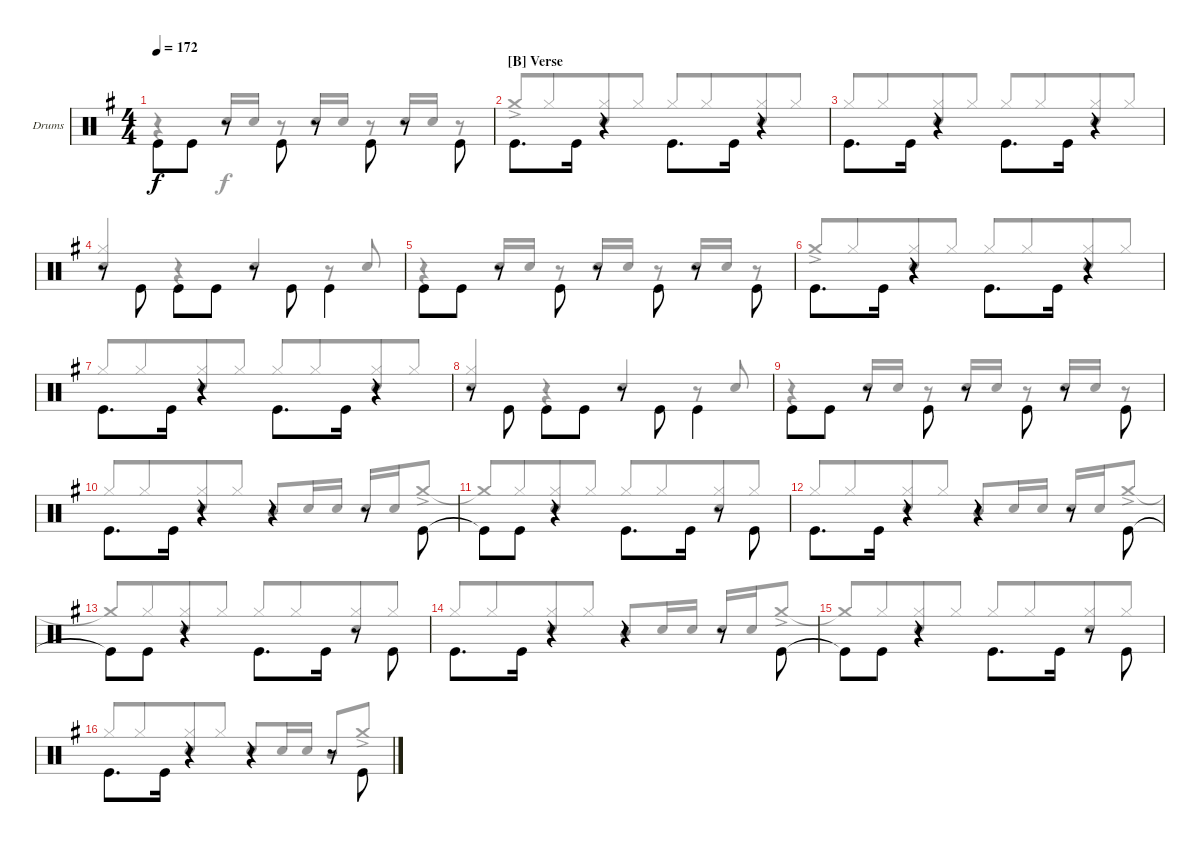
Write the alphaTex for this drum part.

\bracketExtendMode groupsimilarinstruments
\firstSystemTrackNameOrientation horizontal
\otherSystemsTrackNameOrientation horizontal
\track ("Drums" "Drums") {instrument percussion}
\staff {score}
\articulation defaults
\voice
\ts (4 4)
\tempo 172
\clef neutral
\scale
1.04288
\ks g "Kick (hit)".8{dy f beam invert} "Kick (hit)".8
r.8{beam invert} "Kick (hit)".8{beam invert} r.8{beam invert} "Kick (hit)".8{beam invert} r.8{beam invert} "Kick (hit)".8{beam invert} |
\section ("B" "Verse")
\scale
0.957125 "Kick (hit)".8{d beam invert} "Kick (hit)".16 r.4{beam invert} "Kick (hit)".8{d beam invert} "Kick (hit)".16 r.4{beam invert} |
\scale
1.04288 "Kick (hit)".8{d beam invert} "Kick (hit)".16 r.4{beam invert} "Kick (hit)".8{d beam invert} "Kick (hit)".16 r.4{beam invert} |
\scale
0.957125 r.8 "Kick (hit)".8{beam invert} "Kick (hit)".8{beam invert} "Kick (hit)".8 r.8{beam invert} "Kick (hit)".8{beam invert} "Kick (hit)".4{beam invert} |
\scale
1.04288 "Kick (hit)".8{beam invert} "Kick (hit)".8 r.8{beam invert} "Kick (hit)".8{beam invert} r.8{beam invert} "Kick (hit)".8{beam invert} r.8{beam invert} "Kick (hit)".8{beam invert} |
\scale
0.957125 "Kick (hit)".8{d beam invert} "Kick (hit)".16 r.4{beam invert} "Kick (hit)".8{d beam invert} "Kick (hit)".16 r.4{beam invert} |
\scale
1.04288 "Kick (hit)".8{d beam invert} "Kick (hit)".16 r.4{beam invert} "Kick (hit)".8{d beam invert} "Kick (hit)".16 r.4{beam invert} |
\scale
0.957125 r.8 "Kick (hit)".8{beam invert} "Kick (hit)".8{beam invert} "Kick (hit)".8 r.8{beam invert} "Kick (hit)".8{beam invert} "Kick (hit)".4{beam invert} |
\scale
1.04288 "Kick (hit)".8{beam invert} "Kick (hit)".8 r.8{beam invert} "Kick (hit)".8{beam invert} r.8{beam invert} "Kick (hit)".8{beam invert} r.8{beam invert} "Kick (hit)".8{beam invert} |
\scale
0.957125 "Kick (hit)".8{d beam invert} "Kick (hit)".16 r.4{beam invert} r.4{beam invert} r.8{beam invert} "Kick (hit)".8{beam invert} |
\scale
1.04288 "Kick (hit)"{t}.8{beam invert} "Kick (hit)".8 r.4 "Kick (hit)".8{d beam invert} "Kick (hit)".16 r.8{beam invert} "Kick (hit)".8{beam invert} |
\scale
0.957125 "Kick (hit)".8{d beam invert} "Kick (hit)".16 r.4{beam invert} r.4{beam invert} r.8{beam invert} "Kick (hit)".8{beam invert} |
\scale
1.04288 "Kick (hit)"{t}.8{beam invert} "Kick (hit)".8 r.4 "Kick (hit)".8{d beam invert} "Kick (hit)".16 r.8{beam invert} "Kick (hit)".8{beam invert} |
\scale
0.957125 "Kick (hit)".8{d beam invert} "Kick (hit)".16 r.4{beam invert} r.4{beam invert} r.8{beam invert} "Kick (hit)".8{beam invert} |
\scale
1.04288 "Kick (hit)"{t}.8{beam invert} "Kick (hit)".8 r.4 "Kick (hit)".8{d beam invert} "Kick (hit)".16 r.8{beam invert} "Kick (hit)".8{beam invert} |
\scale
0.957125 "Kick (hit)".8{d beam invert} "Kick (hit)".16 r.4{beam invert} r.4{beam invert} r.8{beam invert} "Kick (hit)".8{beam invert}
\voice
\clef neutral
\ottava regular
\simile none
\scale
1.04288
\ks g
r.4{dy f} "Snare (hit) 2".16{beam invert} "Snare (hit) 2".16 r.8 "Snare (hit) 2".16{beam invert} "Snare (hit) 2".16 r.8 "Snare (hit) 2".16{beam invert} "Snare (hit) 2".16 r.8 |
\scale
0.957125 "Crash medium (hit)"{ac}.8{beam invert beam merge} "Hi-Hat (closed)".8{beam merge} ("Hi-Hat (closed)" "Snare (hit) 2").8{beam merge} "Hi-Hat (closed)".8{beam split} "Hi-Hat (closed)".8{beam invert beam merge} "Hi-Hat (closed)".8{beam merge} ("Hi-Hat (closed)" "Snare (hit) 2").8{beam merge} "Hi-Hat (closed)".8{beam merge} |
\scale
1.04288 "Hi-Hat (closed)".8{beam invert beam merge} "Hi-Hat (closed)".8{beam merge} ("Hi-Hat (closed)" "Snare (hit) 2").8{beam merge} "Hi-Hat (closed)".8{beam split} "Hi-Hat (closed)".8{beam invert beam merge} "Hi-Hat (closed)".8{beam merge} ("Hi-Hat (closed)" "Snare (hit) 2").8{beam merge} "Hi-Hat (closed)".8{beam merge} |
\scale
0.957125 ("Hi-Hat (closed)" "Snare (hit) 2").4{beam invert} r.4 "Snare (hit) 2".4{beam invert} r.8 "Snare (hit) 2".8{beam invert} |
\scale
1.04288 r.4 "Snare (hit) 2".16{beam invert} "Snare (hit) 2".16 r.8 "Snare (hit) 2".16{beam invert} "Snare (hit) 2".16 r.8 "Snare (hit) 2".16{beam invert} "Snare (hit) 2".16 r.8 |
\scale
0.957125 "Crash medium (hit)"{ac}.8{beam invert beam merge} "Hi-Hat (closed)".8{beam merge} ("Hi-Hat (closed)" "Snare (hit) 2").8{beam merge} "Hi-Hat (closed)".8{beam split} "Hi-Hat (closed)".8{beam invert beam merge} "Hi-Hat (closed)".8{beam merge} ("Hi-Hat (closed)" "Snare (hit) 2").8{beam merge} "Hi-Hat (closed)".8{beam merge} |
\scale
1.04288 "Hi-Hat (closed)".8{beam invert beam merge} "Hi-Hat (closed)".8{beam merge} ("Hi-Hat (closed)" "Snare (hit) 2").8{beam merge} "Hi-Hat (closed)".8{beam split} "Hi-Hat (closed)".8{beam invert beam merge} "Hi-Hat (closed)".8{beam merge} ("Hi-Hat (closed)" "Snare (hit) 2").8{beam merge} "Hi-Hat (closed)".8{beam merge} |
\scale
0.957125 ("Hi-Hat (closed)" "Snare (hit) 2").4{beam invert} r.4 "Snare (hit) 2".4{beam invert} r.8 "Snare (hit) 2".8{beam invert} |
\scale
1.04288 r.4 "Snare (hit) 2".16{beam invert} "Snare (hit) 2".16 r.8 "Snare (hit) 2".16{beam invert} "Snare (hit) 2".16 r.8 "Snare (hit) 2".16{beam invert} "Snare (hit) 2".16 r.8 |
\scale
0.957125 "Hi-Hat (closed)".8{beam invert beam merge} "Hi-Hat (closed)".8{beam merge} ("Hi-Hat (closed)" "Snare (hit) 2").8{beam merge} "Hi-Hat (closed)".8{beam split} "Mid Tom (hit)".8{beam invert} "Snare (hit) 2".16 "Snare (hit) 2".16 "Snare (hit) 2".16{beam invert} "Snare (hit) 2".16 "Crash medium (hit)"{ac}.8 |
\scale
1.04288 "Crash medium (hit)"{t}.8{beam invert} "Hi-Hat (closed)".8{beam merge} ("Hi-Hat (closed)" "Snare (hit) 2").8{beam merge} "Hi-Hat (closed)".8{beam split} "Hi-Hat (closed)".8{beam invert beam merge} "Hi-Hat (closed)".8{beam merge} ("Hi-Hat (closed)" "Snare (hit) 2").8{beam merge} "Hi-Hat (closed)".8{beam split} |
\scale
0.957125 "Hi-Hat (closed)".8{beam invert beam merge} "Hi-Hat (closed)".8{beam merge} ("Hi-Hat (closed)" "Snare (hit) 2").8{beam merge} "Hi-Hat (closed)".8{beam split} "Mid Tom (hit)".8{beam invert} "Snare (hit) 2".16 "Snare (hit) 2".16 "Snare (hit) 2".16{beam invert} "Snare (hit) 2".16 "Crash medium (hit)"{ac}.8 |
\scale
1.04288 "Crash medium (hit)"{t}.8{beam invert} "Hi-Hat (closed)".8{beam merge} ("Hi-Hat (closed)" "Snare (hit) 2").8{beam merge} "Hi-Hat (closed)".8{beam split} "Hi-Hat (closed)".8{beam invert beam merge} "Hi-Hat (closed)".8{beam merge} ("Hi-Hat (closed)" "Snare (hit) 2").8{beam merge} "Hi-Hat (closed)".8{beam split} |
\scale
0.957125 "Hi-Hat (closed)".8{beam invert beam merge} "Hi-Hat (closed)".8{beam merge} ("Hi-Hat (closed)" "Snare (hit) 2").8{beam merge} "Hi-Hat (closed)".8{beam split} "Mid Tom (hit)".8{beam invert} "Snare (hit) 2".16 "Snare (hit) 2".16 "Snare (hit) 2".16{beam invert} "Snare (hit) 2".16 "Crash medium (hit)"{ac}.8 |
\scale
1.04288 "Crash medium (hit)"{t}.8{beam invert} "Hi-Hat (closed)".8{beam merge} ("Hi-Hat (closed)" "Snare (hit) 2").8{beam merge} "Hi-Hat (closed)".8{beam split} "Hi-Hat (closed)".8{beam invert beam merge} "Hi-Hat (closed)".8{beam merge} ("Hi-Hat (closed)" "Snare (hit) 2").8{beam merge} "Hi-Hat (closed)".8{beam split} |
\scale
0.957125 "Hi-Hat (closed)".8{beam invert beam merge} "Hi-Hat (closed)".8{beam merge} ("Hi-Hat (closed)" "Snare (hit) 2").8{beam merge} "Hi-Hat (closed)".8{beam split} "Snare (hit) 2".8{beam invert} "Snare (hit) 2".16 "Snare (hit) 2".16 "Mid Tom (hit)".8{beam invert} "Crash medium (hit)"{ac}.8
